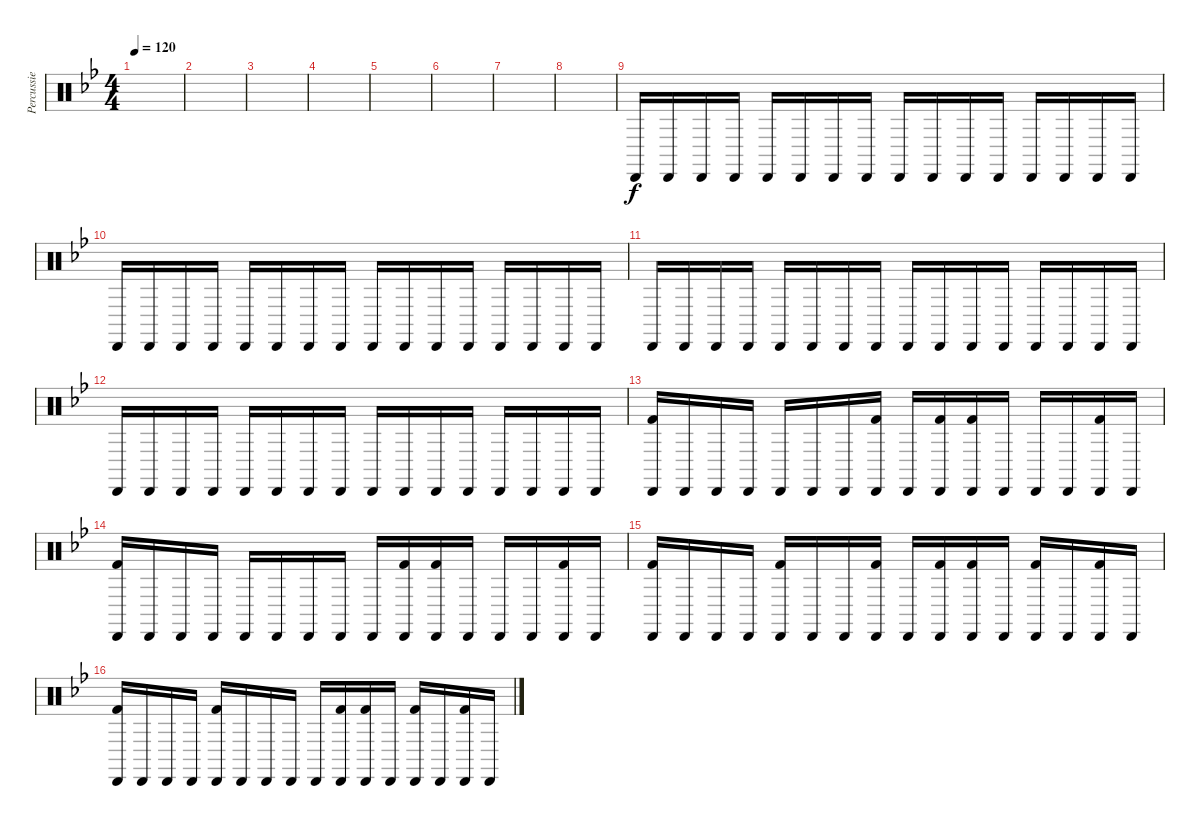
\track ("Percussie" "Percussie") {instrument percussion}
\staff {score}
\articulation defaults
\ts (4 4)
\tempo 120
\clef neutral
\ks bb
|
|
|
|
|
|
|
|
"Cabasa (hit)".16 "Cabasa (hit)".16 "Cabasa (hit)".16 "Cabasa (hit)".16 "Cabasa (hit)".16 "Cabasa (hit)".16 "Cabasa (hit)".16 "Cabasa (hit)".16 "Cabasa (hit)".16 "Cabasa (hit)".16 "Cabasa (hit)".16 "Cabasa (hit)".16 "Cabasa (hit)".16 "Cabasa (hit)".16 "Cabasa (hit)".16 "Cabasa (hit)".16 |
"Cabasa (hit)".16 "Cabasa (hit)".16 "Cabasa (hit)".16 "Cabasa (hit)".16 "Cabasa (hit)".16 "Cabasa (hit)".16 "Cabasa (hit)".16 "Cabasa (hit)".16 "Cabasa (hit)".16 "Cabasa (hit)".16 "Cabasa (hit)".16 "Cabasa (hit)".16 "Cabasa (hit)".16 "Cabasa (hit)".16 "Cabasa (hit)".16 "Cabasa (hit)".16 |
"Cabasa (hit)".16 "Cabasa (hit)".16 "Cabasa (hit)".16 "Cabasa (hit)".16 "Cabasa (hit)".16 "Cabasa (hit)".16 "Cabasa (hit)".16 "Cabasa (hit)".16 "Cabasa (hit)".16 "Cabasa (hit)".16 "Cabasa (hit)".16 "Cabasa (hit)".16 "Cabasa (hit)".16 "Cabasa (hit)".16 "Cabasa (hit)".16 "Cabasa (hit)".16 |
"Cabasa (hit)".16 "Cabasa (hit)".16 "Cabasa (hit)".16 "Cabasa (hit)".16 "Cabasa (hit)".16 "Cabasa (hit)".16 "Cabasa (hit)".16 "Cabasa (hit)".16 "Cabasa (hit)".16 "Cabasa (hit)".16 "Cabasa (hit)".16 "Cabasa (hit)".16 "Cabasa (hit)".16 "Cabasa (hit)".16 "Cabasa (hit)".16 "Cabasa (hit)".16 |
("Cabasa (hit)" "Kick (hit) 2").16 "Cabasa (hit)".16 "Cabasa (hit)".16 "Cabasa (hit)".16 "Cabasa (hit)".16 "Cabasa (hit)".16 "Cabasa (hit)".16 ("Cabasa (hit)" "Kick (hit) 2").16 "Cabasa (hit)".16 ("Cabasa (hit)" "Kick (hit) 2").16 ("Cabasa (hit)" "Kick (hit) 2").16 "Cabasa (hit)".16 "Cabasa (hit)".16 "Cabasa (hit)".16 ("Cabasa (hit)" "Kick (hit) 2").16 "Cabasa (hit)".16 |
("Cabasa (hit)" "Kick (hit) 2").16 "Cabasa (hit)".16 "Cabasa (hit)".16 "Cabasa (hit)".16 "Cabasa (hit)".16 "Cabasa (hit)".16 "Cabasa (hit)".16 "Cabasa (hit)".16 "Cabasa (hit)".16 ("Cabasa (hit)" "Kick (hit) 2").16 ("Cabasa (hit)" "Kick (hit) 2").16 "Cabasa (hit)".16 "Cabasa (hit)".16 "Cabasa (hit)".16 ("Cabasa (hit)" "Kick (hit) 2").16 "Cabasa (hit)".16 |
("Cabasa (hit)" "Kick (hit) 2").16 "Cabasa (hit)".16 "Cabasa (hit)".16 "Cabasa (hit)".16 ("Cabasa (hit)" "Kick (hit) 2").16 "Cabasa (hit)".16 "Cabasa (hit)".16 ("Cabasa (hit)" "Kick (hit) 2").16 "Cabasa (hit)".16 ("Cabasa (hit)" "Kick (hit) 2").16 ("Cabasa (hit)" "Kick (hit) 2").16 "Cabasa (hit)".16 ("Cabasa (hit)" "Kick (hit) 2").16 "Cabasa (hit)".16 ("Cabasa (hit)" "Kick (hit) 2").16 "Cabasa (hit)".16 |
("Cabasa (hit)" "Kick (hit) 2").16 "Cabasa (hit)".16 "Cabasa (hit)".16 "Cabasa (hit)".16 ("Cabasa (hit)" "Kick (hit) 2").16 "Cabasa (hit)".16 "Cabasa (hit)".16 "Cabasa (hit)".16 "Cabasa (hit)".16 ("Cabasa (hit)" "Kick (hit) 2").16 ("Cabasa (hit)" "Kick (hit) 2").16 "Cabasa (hit)".16 ("Cabasa (hit)" "Kick (hit) 2").16 "Cabasa (hit)".16 ("Cabasa (hit)" "Kick (hit) 2").16 "Cabasa (hit)".16
